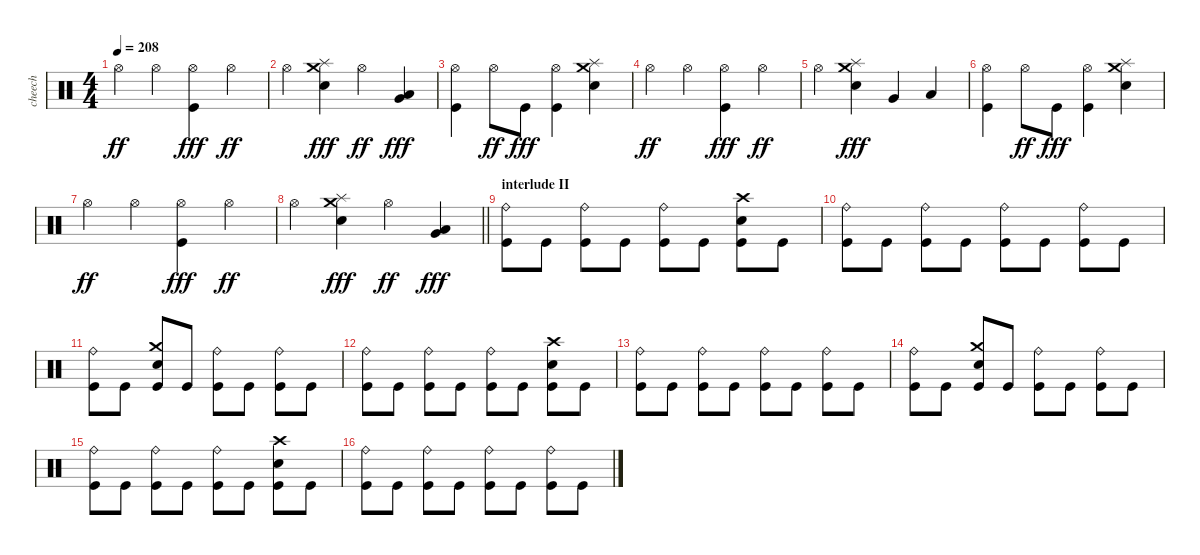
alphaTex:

\track ("cheech" "cheech") {instrument percussion}
\staff {score}
\articulation defaults
\ts (4 4)
\tempo 208
\clef neutral
\ks c "Hi-Hat (open)".4{dy ff} "Hi-Hat (open)".4
("Hi-Hat (open)" "Kick (hit)").4{dy fff} "Hi-Hat (open)".4{dy ff} |
"Hi-Hat (open)".4 ("Crash medium (hit)" "Splash (hit)" "Electric Snare (hit)").4{dy fff} "Hi-Hat (open)".4{dy ff} ("Very Low Tom (hit)" "Low Floor Tom (hit)").4{dy fff} |
("Hi-Hat (open)" "Kick (hit)").4 "Hi-Hat (open)".8{dy ff} "Kick (hit)".8{dy fff} ("Hi-Hat (open)" "Kick (hit)").4 ("Crash medium (hit)" "Splash (hit)" "Electric Snare (hit)").4 |
"Hi-Hat (open)".4{dy ff} "Hi-Hat (open)".4 ("Hi-Hat (open)" "Kick (hit)").4{dy fff} "Hi-Hat (open)".4{dy ff} |
"Hi-Hat (open)".4 ("Crash medium (hit)" "Splash (hit)" "Electric Snare (hit)").4{dy fff} "Very Low Tom (hit)".4 "Low Floor Tom (hit)".4 |
("Hi-Hat (open)" "Kick (hit)").4 "Hi-Hat (open)".8{dy ff} "Kick (hit)".8{dy fff} ("Hi-Hat (open)" "Kick (hit)").4 ("Crash medium (hit)" "Splash (hit)" "Electric Snare (hit)").4 |
"Hi-Hat (open)".4{dy ff} "Hi-Hat (open)".4 ("Hi-Hat (open)" "Kick (hit)").4{dy fff} "Hi-Hat (open)".4{dy ff} |
\barLineRight lightlight "Hi-Hat (open)".4
("Crash medium (hit)" "Splash (hit)" "Electric Snare (hit)").4{dy fff} "Hi-Hat (open)".4{dy ff} ("Very Low Tom (hit)" "Low Floor Tom (hit)").4{dy fff} |
\section ("" "interlude II")
("Ride (bell)" "Kick (hit)").8 "Kick (hit)".8 ("Ride (bell)" "Kick (hit)").8 "Kick (hit)".8 ("Ride (bell)" "Kick (hit)").8 "Kick (hit)".8 ("Crash high (hit)" "Electric Snare (hit)" "Kick (hit)").8 "Kick (hit)".8 |
("Ride (bell)" "Kick (hit)").8 "Kick (hit)".8 ("Ride (bell)" "Kick (hit)").8 "Kick (hit)".8 ("Ride (bell)" "Kick (hit)").8 "Kick (hit)".8 ("Ride (bell)" "Kick (hit)").8 "Kick (hit)".8 |
("Ride (bell)" "Kick (hit)").8 "Kick (hit)".8 ("Crash medium (hit)" "Electric Snare (hit)" "Kick (hit)").8 "Kick (hit)".8 ("Ride (bell)" "Kick (hit)").8 "Kick (hit)".8 ("Ride (bell)" "Kick (hit)").8 "Kick (hit)".8 |
("Ride (bell)" "Kick (hit)").8 "Kick (hit)".8 ("Ride (bell)" "Kick (hit)").8 "Kick (hit)".8 ("Ride (bell)" "Kick (hit)").8 "Kick (hit)".8 ("Crash high (hit)" "Electric Snare (hit)" "Kick (hit)").8 "Kick (hit)".8 |
("Ride (bell)" "Kick (hit)").8 "Kick (hit)".8 ("Ride (bell)" "Kick (hit)").8 "Kick (hit)".8 ("Ride (bell)" "Kick (hit)").8 "Kick (hit)".8 ("Ride (bell)" "Kick (hit)").8 "Kick (hit)".8 |
("Ride (bell)" "Kick (hit)").8 "Kick (hit)".8 ("Crash medium (hit)" "Electric Snare (hit)" "Kick (hit)").8 "Kick (hit)".8 ("Ride (bell)" "Kick (hit)").8 "Kick (hit)".8 ("Ride (bell)" "Kick (hit)").8 "Kick (hit)".8 |
("Ride (bell)" "Kick (hit)").8 "Kick (hit)".8 ("Ride (bell)" "Kick (hit)").8 "Kick (hit)".8 ("Ride (bell)" "Kick (hit)").8 "Kick (hit)".8 ("Crash high (hit)" "Electric Snare (hit)" "Kick (hit)").8 "Kick (hit)".8 |
("Ride (bell)" "Kick (hit)").8 "Kick (hit)".8 ("Ride (bell)" "Kick (hit)").8 "Kick (hit)".8 ("Ride (bell)" "Kick (hit)").8 "Kick (hit)".8 ("Ride (bell)" "Kick (hit)").8 "Kick (hit)".8
